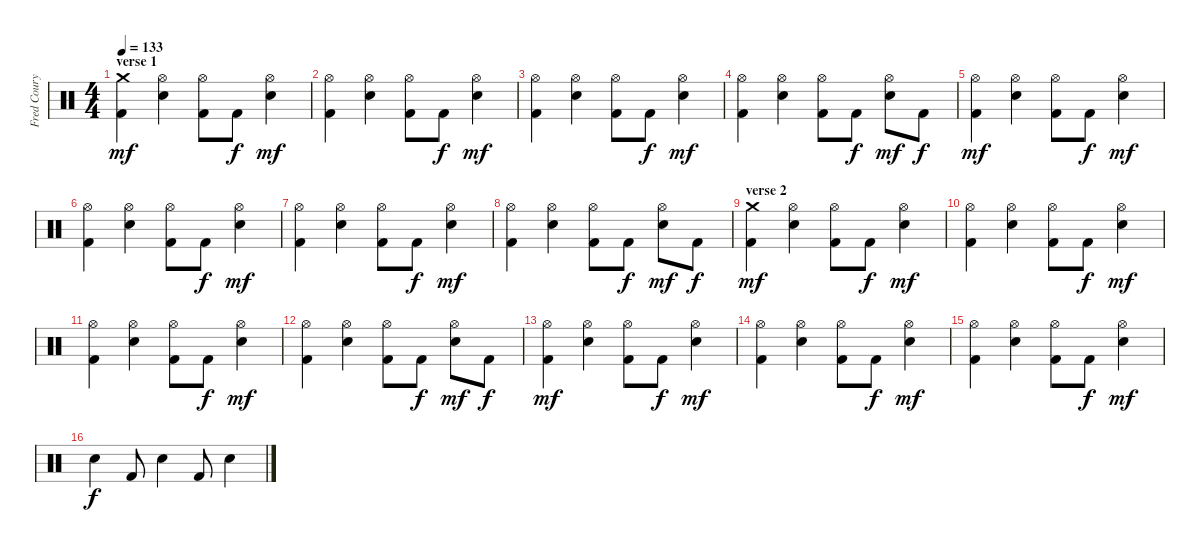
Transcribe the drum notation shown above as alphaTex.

\track ("Fred Coury" "Fred Coury") {instrument percussion}
\staff {score}
\articulation defaults
\ts (4 4)
\section ("" "verse 1")
\tempo 133
\clef neutral
\ks c
("Kick (hit) 2" "Crash medium (hit)").4{dy mf} ("Hi-Hat (open)" "Snare (hit) 2").4 ("Kick (hit) 2" "Hi-Hat (open)").8 "Kick (hit) 2".8{dy f} ("Hi-Hat (open)" "Snare (hit) 2").4{dy mf} |
("Kick (hit) 2" "Hi-Hat (open)").4 ("Hi-Hat (open)" "Snare (hit) 2").4 ("Kick (hit) 2" "Hi-Hat (open)").8 "Kick (hit) 2".8{dy f} ("Hi-Hat (open)" "Snare (hit) 2").4{dy mf} |
("Kick (hit) 2" "Hi-Hat (open)").4 ("Hi-Hat (open)" "Snare (hit) 2").4 ("Kick (hit) 2" "Hi-Hat (open)").8 "Kick (hit) 2".8{dy f} ("Hi-Hat (open)" "Snare (hit) 2").4{dy mf} |
("Kick (hit) 2" "Hi-Hat (open)").4 ("Hi-Hat (open)" "Snare (hit) 2").4 ("Kick (hit) 2" "Hi-Hat (open)").8 "Kick (hit) 2".8{dy f} ("Hi-Hat (open)" "Snare (hit) 2").8{dy mf} "Kick (hit) 2".8{dy f} |
("Kick (hit) 2" "Hi-Hat (open)").4{dy mf} ("Hi-Hat (open)" "Snare (hit) 2").4 ("Kick (hit) 2" "Hi-Hat (open)").8 "Kick (hit) 2".8{dy f} ("Hi-Hat (open)" "Snare (hit) 2").4{dy mf} |
("Kick (hit) 2" "Hi-Hat (open)").4 ("Hi-Hat (open)" "Snare (hit) 2").4 ("Kick (hit) 2" "Hi-Hat (open)").8 "Kick (hit) 2".8{dy f} ("Hi-Hat (open)" "Snare (hit) 2").4{dy mf} |
("Kick (hit) 2" "Hi-Hat (open)").4 ("Hi-Hat (open)" "Snare (hit) 2").4 ("Kick (hit) 2" "Hi-Hat (open)").8 "Kick (hit) 2".8{dy f} ("Hi-Hat (open)" "Snare (hit) 2").4{dy mf} |
("Kick (hit) 2" "Hi-Hat (open)").4 ("Hi-Hat (open)" "Snare (hit) 2").4 ("Kick (hit) 2" "Hi-Hat (open)").8 "Kick (hit) 2".8{dy f} ("Hi-Hat (open)" "Snare (hit) 2").8{dy mf} "Kick (hit) 2".8{dy f} |
\section ("" "verse 2")
("Kick (hit) 2" "Crash medium (hit)").4{dy mf} ("Hi-Hat (open)" "Snare (hit) 2").4 ("Kick (hit) 2" "Hi-Hat (open)").8 "Kick (hit) 2".8{dy f} ("Hi-Hat (open)" "Snare (hit) 2").4{dy mf} |
("Kick (hit) 2" "Hi-Hat (open)").4 ("Hi-Hat (open)" "Snare (hit) 2").4 ("Kick (hit) 2" "Hi-Hat (open)").8 "Kick (hit) 2".8{dy f} ("Hi-Hat (open)" "Snare (hit) 2").4{dy mf} |
("Kick (hit) 2" "Hi-Hat (open)").4 ("Hi-Hat (open)" "Snare (hit) 2").4 ("Kick (hit) 2" "Hi-Hat (open)").8 "Kick (hit) 2".8{dy f} ("Hi-Hat (open)" "Snare (hit) 2").4{dy mf} |
("Kick (hit) 2" "Hi-Hat (open)").4 ("Hi-Hat (open)" "Snare (hit) 2").4 ("Kick (hit) 2" "Hi-Hat (open)").8 "Kick (hit) 2".8{dy f} ("Hi-Hat (open)" "Snare (hit) 2").8{dy mf} "Kick (hit) 2".8{dy f} |
("Kick (hit) 2" "Hi-Hat (open)").4{dy mf} ("Hi-Hat (open)" "Snare (hit) 2").4 ("Kick (hit) 2" "Hi-Hat (open)").8 "Kick (hit) 2".8{dy f} ("Hi-Hat (open)" "Snare (hit) 2").4{dy mf} |
("Kick (hit) 2" "Hi-Hat (open)").4 ("Hi-Hat (open)" "Snare (hit) 2").4 ("Kick (hit) 2" "Hi-Hat (open)").8 "Kick (hit) 2".8{dy f} ("Hi-Hat (open)" "Snare (hit) 2").4{dy mf} |
("Kick (hit) 2" "Hi-Hat (open)").4 ("Hi-Hat (open)" "Snare (hit) 2").4 ("Kick (hit) 2" "Hi-Hat (open)").8 "Kick (hit) 2".8{dy f} ("Hi-Hat (open)" "Snare (hit) 2").4{dy mf} |
"Snare (hit) 2".4{dy f} "Kick (hit) 2".8 "Snare (hit) 2".4 "Kick (hit) 2".8 "Snare (hit) 2".4
